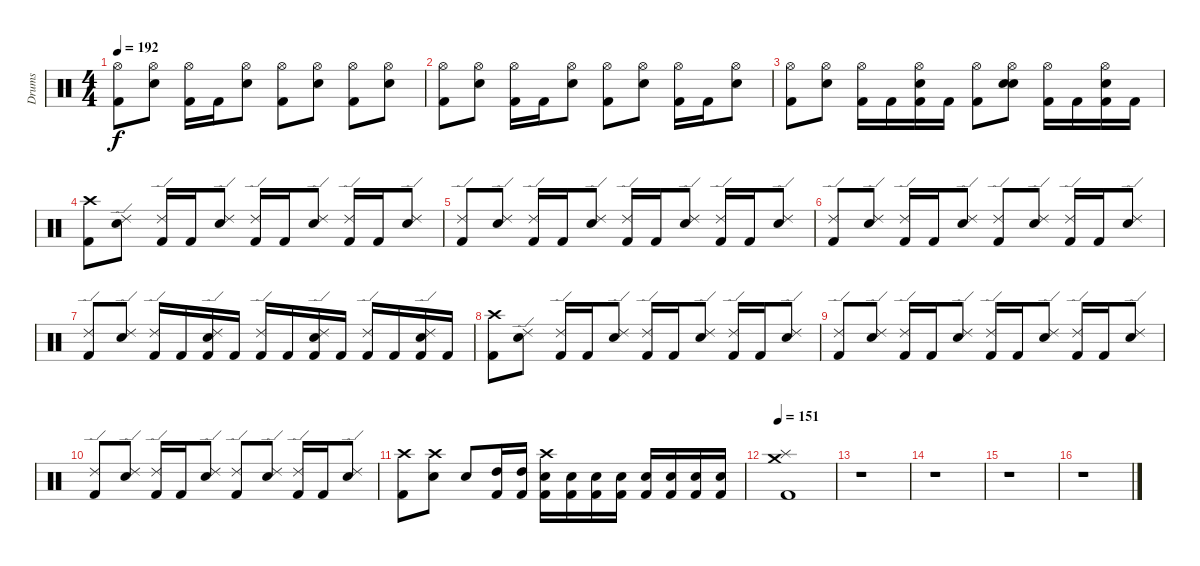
\track ("Drums" "Drums") {instrument percussion}
\staff {score}
\articulation defaults
\ts (4 4)
\tempo 192
\clef neutral
\ks c
("Kick (hit) 2" "Hi-Hat (open)").8{dy f} ("Snare (hit) 2" "Hi-Hat (open)").8 ("Kick (hit) 2" "Hi-Hat (open)").16 "Kick (hit) 2".16 ("Snare (hit) 2" "Hi-Hat (open)").8 ("Kick (hit) 2" "Hi-Hat (open)").8 ("Snare (hit) 2" "Hi-Hat (open)").8 ("Kick (hit) 2" "Hi-Hat (open)").8 ("Snare (hit) 2" "Hi-Hat (open)").8 |
("Kick (hit) 2" "Hi-Hat (open)").8 ("Snare (hit) 2" "Hi-Hat (open)").8 ("Kick (hit) 2" "Hi-Hat (open)").16 "Kick (hit) 2".16 ("Snare (hit) 2" "Hi-Hat (open)").8 ("Kick (hit) 2" "Hi-Hat (open)").8 ("Snare (hit) 2" "Hi-Hat (open)").8 ("Kick (hit) 2" "Hi-Hat (open)").16 "Kick (hit) 2".16 ("Snare (hit) 2" "Hi-Hat (open)").8 |
("Kick (hit) 2" "Hi-Hat (open)").8 ("Snare (hit) 2" "Hi-Hat (open)").8 ("Kick (hit) 2" "Hi-Hat (open)").16 "Kick (hit) 2".16 ("Kick (hit) 2" "Snare (hit) 2" "Hi-Hat (open)").16 "Kick (hit) 2".16 ("Kick (hit) 2" "Hi-Hat (open)").8 ("Snare (hit) 2" "Snare (hit) 2" "Hi-Hat (open)").8 ("Kick (hit) 2" "Hi-Hat (open)").16 "Kick (hit) 2".16 ("Kick (hit) 2" "Snare (hit) 2" "Hi-Hat (open)").16 "Kick (hit) 2".16 |
\section ("" "")
("Kick (hit) 2" "Crash high (hit)").8 ("Snare (hit) 2" "Ride (edge) 2").8 ("Kick (hit) 2" "Ride (edge) 2").16 "Kick (hit) 2".16 ("Snare (hit) 2" "Ride (edge) 2").8 ("Kick (hit) 2" "Ride (edge) 2").16 "Kick (hit) 2".16 ("Snare (hit) 2" "Ride (edge) 2").8 ("Kick (hit) 2" "Ride (edge) 2").16 "Kick (hit) 2".16 ("Snare (hit) 2" "Ride (edge) 2").8 |
("Kick (hit) 2" "Ride (edge) 2").8 ("Snare (hit) 2" "Ride (edge) 2").8 ("Kick (hit) 2" "Ride (edge) 2").16 "Kick (hit) 2".16 ("Snare (hit) 2" "Ride (edge) 2").8 ("Kick (hit) 2" "Ride (edge) 2").16 "Kick (hit) 2".16 ("Snare (hit) 2" "Ride (edge) 2").8 ("Kick (hit) 2" "Ride (edge) 2").16 "Kick (hit) 2".16 ("Snare (hit) 2" "Ride (edge) 2").8 |
("Kick (hit) 2" "Ride (edge) 2").8 ("Snare (hit) 2" "Ride (edge) 2").8 ("Kick (hit) 2" "Ride (edge) 2").16 "Kick (hit) 2".16 ("Snare (hit) 2" "Ride (edge) 2").8 ("Kick (hit) 2" "Ride (edge) 2").8 ("Snare (hit) 2" "Ride (edge) 2").8 ("Kick (hit) 2" "Ride (edge) 2").16 "Kick (hit) 2".16 ("Snare (hit) 2" "Ride (edge) 2").8 |
("Kick (hit) 2" "Ride (edge) 2").8 ("Snare (hit) 2" "Ride (edge) 2").8 ("Kick (hit) 2" "Ride (edge) 2").16 "Kick (hit) 2".16 ("Kick (hit) 2" "Snare (hit) 2" "Ride (edge) 2").16 "Kick (hit) 2".16 ("Kick (hit) 2" "Ride (edge) 2").16 "Kick (hit) 2".16 ("Kick (hit) 2" "Snare (hit) 2" "Ride (edge) 2").16 "Kick (hit) 2".16 ("Kick (hit) 2" "Ride (edge) 2").16 "Kick (hit) 2".16 ("Kick (hit) 2" "Snare (hit) 2" "Ride (edge) 2").16 "Kick (hit) 2".16 |
("Kick (hit) 2" "Crash high (hit)").8 ("Snare (hit) 2" "Ride (edge) 2").8 ("Kick (hit) 2" "Ride (edge) 2").16 "Kick (hit) 2".16 ("Snare (hit) 2" "Ride (edge) 2").8 ("Kick (hit) 2" "Ride (edge) 2").16 "Kick (hit) 2".16 ("Snare (hit) 2" "Ride (edge) 2").8 ("Kick (hit) 2" "Ride (edge) 2").16 "Kick (hit) 2".16 ("Snare (hit) 2" "Ride (edge) 2").8 |
("Kick (hit) 2" "Ride (edge) 2").8 ("Snare (hit) 2" "Ride (edge) 2").8 ("Kick (hit) 2" "Ride (edge) 2").16 "Kick (hit) 2".16 ("Snare (hit) 2" "Ride (edge) 2").8 ("Kick (hit) 2" "Ride (edge) 2").16 "Kick (hit) 2".16 ("Snare (hit) 2" "Ride (edge) 2").8 ("Kick (hit) 2" "Ride (edge) 2").16 "Kick (hit) 2".16 ("Snare (hit) 2" "Ride (edge) 2").8 |
("Kick (hit) 2" "Ride (edge) 2").8 ("Snare (hit) 2" "Ride (edge) 2").8 ("Kick (hit) 2" "Ride (edge) 2").16 "Kick (hit) 2".16 ("Snare (hit) 2" "Ride (edge) 2").8 ("Kick (hit) 2" "Ride (edge) 2").8 ("Snare (hit) 2" "Ride (edge) 2").8 ("Kick (hit) 2" "Ride (edge) 2").16 "Kick (hit) 2".16 ("Snare (hit) 2" "Ride (edge) 2").8 |
("Kick (hit) 2" "Crash high (hit)").8 ("Snare (hit) 2" "Crash high (hit)").8 "Snare (hit) 2".8 ("Kick (hit) 2" "High Tom (hit)").16 ("Kick (hit) 2" "High Tom (hit)").16 ("Kick (hit) 2" "Snare (hit) 2" "Crash high (hit)").16 ("Kick (hit) 2" "Snare (hit) 2").16 ("Kick (hit) 2" "Snare (hit) 2").16 ("Kick (hit) 2" "Snare (hit) 2").16 ("Kick (hit) 2" "Snare (hit) 2").16 ("Kick (hit) 2" "Snare (hit) 2").16 ("Kick (hit) 2" "Snare (hit) 2").16 ("Kick (hit) 2" "Snare (hit) 2").16 |
\tempo 151
("Kick (hit) 2" "Splash (hit)" "Crash medium (hit)").1 |
\section ("" "")
r.1 |
r.1 |
r.1 |
r.1
